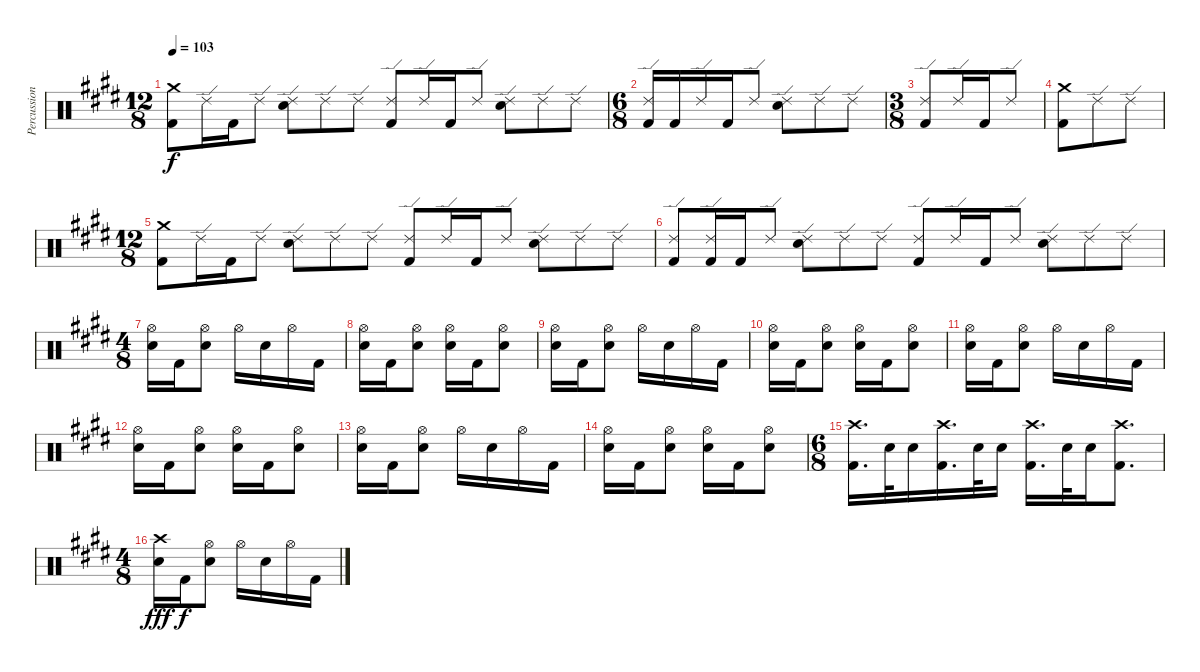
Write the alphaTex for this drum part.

\track ("Percussion" "Percussion") {instrument percussion}
\staff {score}
\articulation defaults
\ts (12 8)
\tempo 103
\clef neutral
\ks c#minor
("Crash medium (hit)" "Kick (hit) 2").8{dy f} "Ride (edge) 2".16 "Kick (hit) 2".16 "Ride (edge) 2".8 ("Ride (edge) 2" "Electric Snare (hit)").8 "Ride (edge) 2".8 "Ride (edge) 2".8 ("Ride (edge) 2" "Kick (hit) 2").8 "Ride (edge) 2".16 "Kick (hit) 2".16 "Ride (edge) 2".8 ("Ride (edge) 2" "Electric Snare (hit)").8 "Ride (edge) 2".8 "Ride (edge) 2".8 |
\ts (6 8)
\ks e
("Ride (edge) 2" "Kick (hit) 2").16 "Kick (hit) 2".16 "Ride (edge) 2".16 "Kick (hit) 2".16 "Ride (edge) 2".8 ("Ride (edge) 2" "Electric Snare (hit)").8 "Ride (edge) 2".8 "Ride (edge) 2".8 |
\ts (3 8)
\ks c#minor
("Ride (edge) 2" "Kick (hit) 2").8{beam merge} "Ride (edge) 2".16 "Kick (hit) 2".16{beam merge} "Ride (edge) 2".8 |
("Crash medium (hit)" "Kick (hit) 2").8 "Ride (edge) 2".8{beam merge} "Ride (edge) 2".8 |
\ts (12 8)
("Crash medium (hit)" "Kick (hit) 2").8 "Ride (edge) 2".16 "Kick (hit) 2".16 "Ride (edge) 2".8 ("Ride (edge) 2" "Electric Snare (hit)").8 "Ride (edge) 2".8 "Ride (edge) 2".8 ("Ride (edge) 2" "Kick (hit) 2").8 "Ride (edge) 2".16 "Kick (hit) 2".16 "Ride (edge) 2".8 ("Ride (edge) 2" "Electric Snare (hit)").8 "Ride (edge) 2".8 "Ride (edge) 2".8 |
\ks e
("Ride (edge) 2" "Kick (hit) 2").8 ("Ride (edge) 2" "Kick (hit) 2").16 "Kick (hit) 2".16 "Ride (edge) 2".8 ("Ride (edge) 2" "Electric Snare (hit)").8 "Ride (edge) 2".8 "Ride (edge) 2".8 ("Ride (edge) 2" "Kick (hit) 2").8 "Ride (edge) 2".16 "Kick (hit) 2".16 "Ride (edge) 2".8 ("Ride (edge) 2" "Electric Snare (hit)").8 "Ride (edge) 2".8 "Ride (edge) 2".8 |
\ts (4 8)
("Hi-Hat (open)" "Electric Snare (hit)").16 "Kick (hit) 2".16 ("Hi-Hat (open)" "Electric Snare (hit)").8 "Hi-Hat (open)".16 "Electric Snare (hit)".16 "Hi-Hat (open)".16 "Kick (hit) 2".16 |
\ks c#minor
("Hi-Hat (open)" "Electric Snare (hit)").16 "Kick (hit) 2".16 ("Hi-Hat (open)" "Electric Snare (hit)").8 ("Hi-Hat (open)" "Electric Snare (hit)").16 "Kick (hit) 2".16 ("Hi-Hat (open)" "Electric Snare (hit)").8 |
("Hi-Hat (open)" "Electric Snare (hit)").16 "Kick (hit) 2".16 ("Hi-Hat (open)" "Electric Snare (hit)").8 "Hi-Hat (open)".16 "Electric Snare (hit)".16 "Hi-Hat (open)".16 "Kick (hit) 2".16 |
("Hi-Hat (open)" "Electric Snare (hit)").16 "Kick (hit) 2".16 ("Hi-Hat (open)" "Electric Snare (hit)").8 ("Hi-Hat (open)" "Electric Snare (hit)").16 "Kick (hit) 2".16 ("Hi-Hat (open)" "Electric Snare (hit)").8 |
\ks e
("Hi-Hat (open)" "Electric Snare (hit)").16 "Kick (hit) 2".16 ("Hi-Hat (open)" "Electric Snare (hit)").8 "Hi-Hat (open)".16 "Electric Snare (hit)".16 "Hi-Hat (open)".16 "Kick (hit) 2".16 |
\ks c#minor
("Hi-Hat (open)" "Electric Snare (hit)").16 "Kick (hit) 2".16 ("Hi-Hat (open)" "Electric Snare (hit)").8 ("Hi-Hat (open)" "Electric Snare (hit)").16 "Kick (hit) 2".16 ("Hi-Hat (open)" "Electric Snare (hit)").8 |
("Hi-Hat (open)" "Electric Snare (hit)").16 "Kick (hit) 2".16 ("Hi-Hat (open)" "Electric Snare (hit)").8 "Hi-Hat (open)".16 "Electric Snare (hit)".16 "Hi-Hat (open)".16 "Kick (hit) 2".16 |
("Hi-Hat (open)" "Electric Snare (hit)").16 "Kick (hit) 2".16 ("Hi-Hat (open)" "Electric Snare (hit)").8 ("Hi-Hat (open)" "Electric Snare (hit)").16 "Kick (hit) 2".16 ("Hi-Hat (open)" "Electric Snare (hit)").8 |
\ts (6 8)
\ks e
("Crash high (hit)" "Kick (hit) 2").16{d} "Electric Snare (hit)".32 "Electric Snare (hit)".16 ("Crash high (hit)" "Kick (hit) 2").16{d} "Electric Snare (hit)".32 "Electric Snare (hit)".16 ("Crash high (hit)" "Kick (hit) 2").16{d} "Electric Snare (hit)".32 "Electric Snare (hit)".16 ("Crash high (hit)" "Kick (hit) 2").8{d} |
\ts (4 8)
\ks c#minor
("Crash high (hit)" "Electric Snare (hit)").16{dy fff} "Kick (hit) 2".16{dy f} ("Hi-Hat (open)" "Electric Snare (hit)").8 "Hi-Hat (open)".16 "Electric Snare (hit)".16 "Hi-Hat (open)".16 "Kick (hit) 2".16
